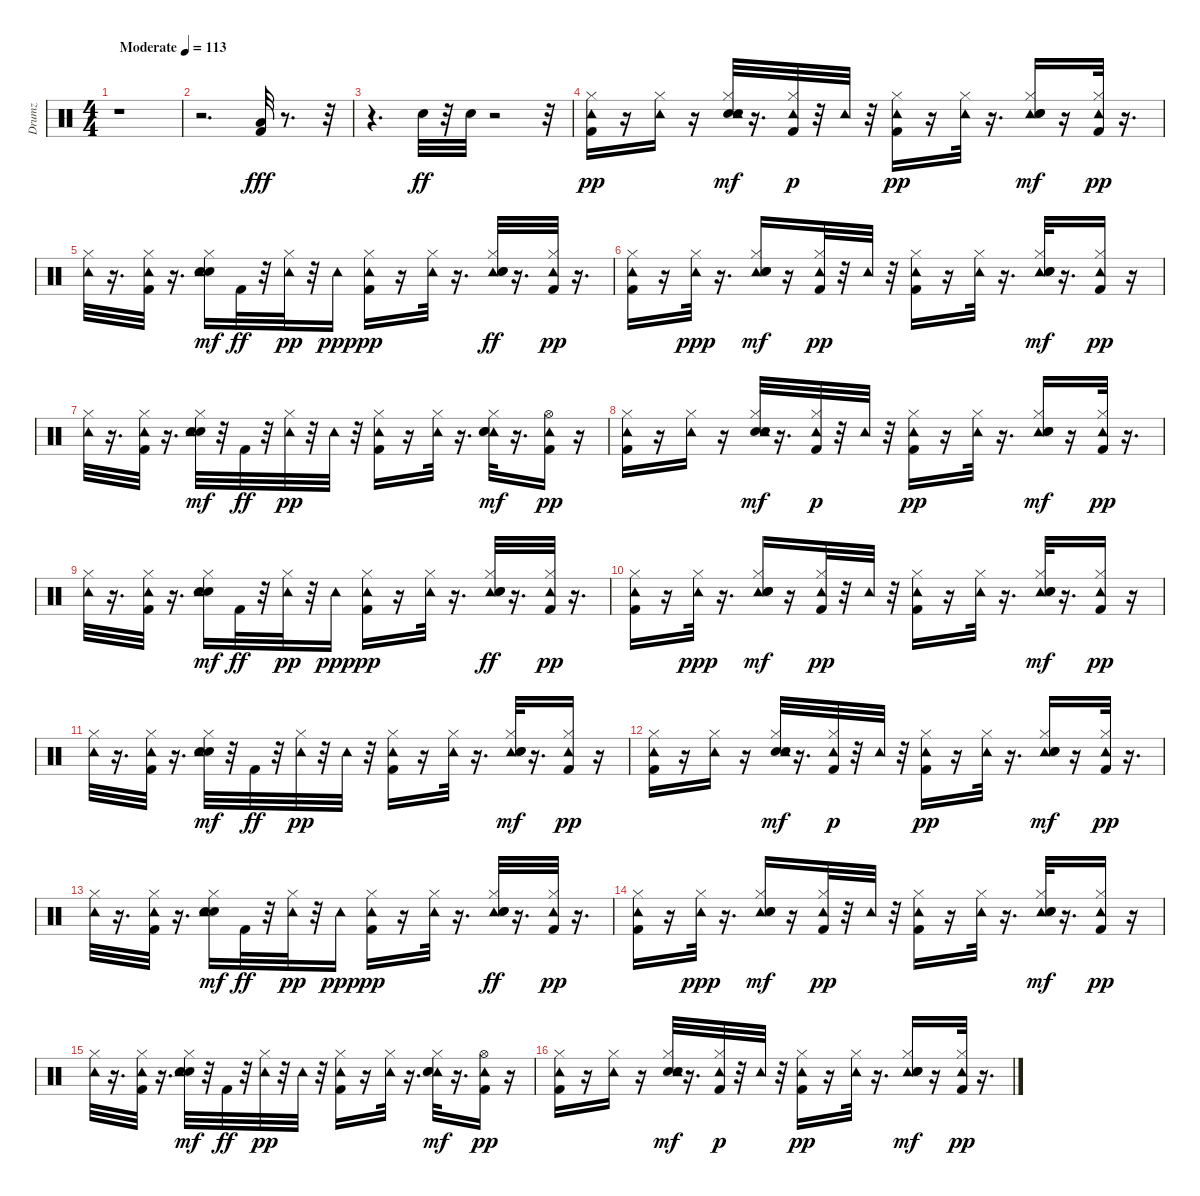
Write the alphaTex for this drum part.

\track ("Drumz" "Drumz") {instrument percussion}
\staff {score}
\articulation defaults
\ts (4 4)
\tempo (113 "Moderate")
\clef neutral
\ks c
r.1{dy fff} |
r.2{d} ("Low Floor Tom (hit)" "Kick (hit) 2").32 r.8{d} r.32 |
r.4{d} "Electric Snare (hit)".32{dy ff} r.32 "Electric Snare (hit)".32 r.2 r.32 |
("Hi-Hat (closed)" "Kick (hit) 2" "Tambourine (hit)").16{dy pp volume 12} r.16 ("Hi-Hat (closed)" "Tambourine (hit)").16 r.16 ("Electric Snare (hit)" "Hand Clap (hit)" "Hi-Hat (closed)" "Tambourine (hit)").32{dy mf} r.16{d} ("Hi-Hat (closed)" "Kick (hit) 2" "Tambourine (hit)").32{dy p} r.32 "Tambourine (hit)".32 r.32 ("Kick (hit) 2" "Hi-Hat (closed)" "Tambourine (hit)").16{dy pp} r.16 ("Hi-Hat (closed)" "Tambourine (hit)").32 r.16{d} ("Tambourine (hit)" "Electric Snare (hit)" "Hi-Hat (closed)" "Hand Clap (hit)").16{dy mf} r.16 ("Hi-Hat (closed)" "Kick (hit) 2" "Tambourine (hit)").32{dy pp} r.16{d} |
("Hi-Hat (closed)" "Tambourine (hit)").32 r.16{d} ("Kick (hit) 2" "Hi-Hat (closed)" "Tambourine (hit)").32 r.16{d} ("Electric Snare (hit)" "Hand Clap (hit)" "Hi-Hat (closed)" "Tambourine (hit)").16{dy mf} "Kick (hit) 2".32{dy ff} r.32 ("Hi-Hat (closed)" "Tambourine (hit)").32{dy pp} r.32 "Tambourine (hit)".16{dy ppp} ("Hi-Hat (closed)" "Kick (hit) 2" "Tambourine (hit)").16{dy pp} r.16 ("Hi-Hat (closed)" "Tambourine (hit)").32 r.16{d} ("Tambourine (hit)" "Hi-Hat (closed)" "Hand Clap (hit)" "Electric Snare (hit)").32{dy ff} r.16{d} ("Hi-Hat (closed)" "Kick (hit) 2" "Tambourine (hit)").32{dy pp} r.16{d} |
("Hi-Hat (closed)" "Kick (hit) 2" "Tambourine (hit)").16 r.16 ("Hi-Hat (closed)" "Tambourine (hit)").32{dy ppp} r.16{d} ("Tambourine (hit)" "Electric Snare (hit)" "Hi-Hat (closed)" "Hand Clap (hit)").16{dy mf} r.16 ("Kick (hit) 2" "Hi-Hat (closed)" "Tambourine (hit)").32{dy pp} r.32 "Tambourine (hit)".32 r.32 ("Kick (hit) 2" "Hi-Hat (closed)" "Tambourine (hit)").16 r.16 ("Hi-Hat (closed)" "Tambourine (hit)").32 r.16{d} ("Tambourine (hit)" "Electric Snare (hit)" "Hi-Hat (closed)" "Hand Clap (hit)").32{dy mf} r.16{d} ("Hi-Hat (closed)" "Kick (hit) 2" "Tambourine (hit)").16{dy pp} r.16 |
("Hi-Hat (closed)" "Tambourine (hit)").32 r.16{d} ("Kick (hit) 2" "Hi-Hat (closed)" "Tambourine (hit)").32 r.16{d} ("Hand Clap (hit)" "Electric Snare (hit)" "Hi-Hat (closed)" "Tambourine (hit)").32{dy mf} r.32 "Kick (hit) 2".32{dy ff} r.32 ("Hi-Hat (closed)" "Tambourine (hit)").32{dy pp} r.32 "Tambourine (hit)".32 r.32 ("Kick (hit) 2" "Hi-Hat (closed)" "Tambourine (hit)").16 r.16 ("Hi-Hat (closed)" "Tambourine (hit)").32 r.16{d} ("Tambourine (hit)" "Hand Clap (hit)" "Electric Snare (hit)" "Hi-Hat (closed)").32{dy mf} r.16{d} ("Hi-Hat (open)" "Kick (hit) 2" "Tambourine (hit)").16{dy pp} r.16 |
("Hi-Hat (closed)" "Kick (hit) 2" "Tambourine (hit)").16 r.16 ("Hi-Hat (closed)" "Tambourine (hit)").16 r.16 ("Electric Snare (hit)" "Hand Clap (hit)" "Hi-Hat (closed)" "Tambourine (hit)").32{dy mf} r.16{d} ("Hi-Hat (closed)" "Kick (hit) 2" "Tambourine (hit)").32{dy p} r.32 "Tambourine (hit)".32 r.32 ("Kick (hit) 2" "Hi-Hat (closed)" "Tambourine (hit)").16{dy pp} r.16 ("Hi-Hat (closed)" "Tambourine (hit)").32 r.16{d} ("Tambourine (hit)" "Electric Snare (hit)" "Hi-Hat (closed)" "Hand Clap (hit)").16{dy mf} r.16 ("Hi-Hat (closed)" "Kick (hit) 2" "Tambourine (hit)").32{dy pp} r.16{d} |
("Hi-Hat (closed)" "Tambourine (hit)").32 r.16{d} ("Kick (hit) 2" "Hi-Hat (closed)" "Tambourine (hit)").32 r.16{d} ("Electric Snare (hit)" "Hand Clap (hit)" "Hi-Hat (closed)" "Tambourine (hit)").16{dy mf} "Kick (hit) 2".32{dy ff} r.32 ("Hi-Hat (closed)" "Tambourine (hit)").32{dy pp} r.32 "Tambourine (hit)".16{dy ppp} ("Hi-Hat (closed)" "Kick (hit) 2" "Tambourine (hit)").16{dy pp} r.16 ("Hi-Hat (closed)" "Tambourine (hit)").32 r.16{d} ("Tambourine (hit)" "Hi-Hat (closed)" "Hand Clap (hit)" "Electric Snare (hit)").32{dy ff} r.16{d} ("Hi-Hat (closed)" "Kick (hit) 2" "Tambourine (hit)").32{dy pp} r.16{d} |
("Hi-Hat (closed)" "Kick (hit) 2" "Tambourine (hit)").16 r.16 ("Hi-Hat (closed)" "Tambourine (hit)").32{dy ppp} r.16{d} ("Tambourine (hit)" "Electric Snare (hit)" "Hi-Hat (closed)" "Hand Clap (hit)").16{dy mf} r.16 ("Kick (hit) 2" "Hi-Hat (closed)" "Tambourine (hit)").32{dy pp} r.32 "Tambourine (hit)".32 r.32 ("Kick (hit) 2" "Hi-Hat (closed)" "Tambourine (hit)").16 r.16 ("Hi-Hat (closed)" "Tambourine (hit)").32 r.16{d} ("Tambourine (hit)" "Electric Snare (hit)" "Hi-Hat (closed)" "Hand Clap (hit)").32{dy mf} r.16{d} ("Hi-Hat (closed)" "Kick (hit) 2" "Tambourine (hit)").16{dy pp} r.16 |
("Hi-Hat (closed)" "Tambourine (hit)").32 r.16{d} ("Kick (hit) 2" "Hi-Hat (closed)" "Tambourine (hit)").32 r.16{d} ("Hand Clap (hit)" "Electric Snare (hit)" "Hi-Hat (closed)" "Tambourine (hit)").32{dy mf} r.32 "Kick (hit) 2".32{dy ff} r.32 ("Hi-Hat (closed)" "Tambourine (hit)").32{dy pp} r.32 "Tambourine (hit)".32 r.32 ("Kick (hit) 2" "Hi-Hat (closed)" "Tambourine (hit)").16 r.16 ("Hi-Hat (closed)" "Tambourine (hit)").32 r.16{d} ("Tambourine (hit)" "Hand Clap (hit)" "Electric Snare (hit)" "Hi-Hat (closed)").32{dy mf} r.16{d} ("Kick (hit) 2" "Hi-Hat (closed)" "Tambourine (hit)").16{dy pp} r.16 |
("Hi-Hat (closed)" "Kick (hit) 2" "Tambourine (hit)").16 r.16 ("Hi-Hat (closed)" "Tambourine (hit)").16 r.16 ("Electric Snare (hit)" "Hand Clap (hit)" "Hi-Hat (closed)" "Tambourine (hit)").32{dy mf} r.16{d} ("Hi-Hat (closed)" "Kick (hit) 2" "Tambourine (hit)").32{dy p} r.32 "Tambourine (hit)".32 r.32 ("Kick (hit) 2" "Hi-Hat (closed)" "Tambourine (hit)").16{dy pp} r.16 ("Hi-Hat (closed)" "Tambourine (hit)").32 r.16{d} ("Tambourine (hit)" "Electric Snare (hit)" "Hi-Hat (closed)" "Hand Clap (hit)").16{dy mf} r.16 ("Hi-Hat (closed)" "Kick (hit) 2" "Tambourine (hit)").32{dy pp} r.16{d} |
("Hi-Hat (closed)" "Tambourine (hit)").32 r.16{d} ("Kick (hit) 2" "Hi-Hat (closed)" "Tambourine (hit)").32 r.16{d} ("Electric Snare (hit)" "Hand Clap (hit)" "Hi-Hat (closed)" "Tambourine (hit)").16{dy mf} "Kick (hit) 2".32{dy ff} r.32 ("Hi-Hat (closed)" "Tambourine (hit)").32{dy pp} r.32 "Tambourine (hit)".16{dy ppp} ("Hi-Hat (closed)" "Kick (hit) 2" "Tambourine (hit)").16{dy pp} r.16 ("Hi-Hat (closed)" "Tambourine (hit)").32 r.16{d} ("Tambourine (hit)" "Hi-Hat (closed)" "Hand Clap (hit)" "Electric Snare (hit)").32{dy ff} r.16{d} ("Hi-Hat (closed)" "Kick (hit) 2" "Tambourine (hit)").32{dy pp} r.16{d} |
("Hi-Hat (closed)" "Kick (hit) 2" "Tambourine (hit)").16 r.16 ("Hi-Hat (closed)" "Tambourine (hit)").32{dy ppp} r.16{d} ("Tambourine (hit)" "Electric Snare (hit)" "Hi-Hat (closed)" "Hand Clap (hit)").16{dy mf} r.16 ("Kick (hit) 2" "Hi-Hat (closed)" "Tambourine (hit)").32{dy pp} r.32 "Tambourine (hit)".32 r.32 ("Kick (hit) 2" "Hi-Hat (closed)" "Tambourine (hit)").16 r.16 ("Hi-Hat (closed)" "Tambourine (hit)").32 r.16{d} ("Tambourine (hit)" "Electric Snare (hit)" "Hi-Hat (closed)" "Hand Clap (hit)").32{dy mf} r.16{d} ("Hi-Hat (closed)" "Kick (hit) 2" "Tambourine (hit)").16{dy pp} r.16 |
("Hi-Hat (closed)" "Tambourine (hit)").32 r.16{d} ("Kick (hit) 2" "Hi-Hat (closed)" "Tambourine (hit)").32 r.16{d} ("Hand Clap (hit)" "Electric Snare (hit)" "Hi-Hat (closed)" "Tambourine (hit)").32{dy mf} r.32 "Kick (hit) 2".32{dy ff} r.32 ("Hi-Hat (closed)" "Tambourine (hit)").32{dy pp} r.32 "Tambourine (hit)".32 r.32 ("Kick (hit) 2" "Hi-Hat (closed)" "Tambourine (hit)").16 r.16 ("Hi-Hat (closed)" "Tambourine (hit)").32 r.16{d} ("Tambourine (hit)" "Hand Clap (hit)" "Electric Snare (hit)" "Hi-Hat (closed)").32{dy mf} r.16{d} ("Hi-Hat (open)" "Kick (hit) 2" "Tambourine (hit)").16{dy pp} r.16 |
("Hi-Hat (closed)" "Kick (hit) 2" "Tambourine (hit)").16 r.16 ("Hi-Hat (closed)" "Tambourine (hit)").16 r.16 ("Electric Snare (hit)" "Hand Clap (hit)" "Hi-Hat (closed)" "Tambourine (hit)").32{dy mf} r.16{d} ("Hi-Hat (closed)" "Kick (hit) 2" "Tambourine (hit)").32{dy p} r.32 "Tambourine (hit)".32 r.32 ("Kick (hit) 2" "Hi-Hat (closed)" "Tambourine (hit)").16{dy pp} r.16 ("Hi-Hat (closed)" "Tambourine (hit)").32 r.16{d} ("Tambourine (hit)" "Electric Snare (hit)" "Hi-Hat (closed)" "Hand Clap (hit)").16{dy mf} r.16 ("Hi-Hat (closed)" "Kick (hit) 2" "Tambourine (hit)").32{dy pp} r.16{d}
